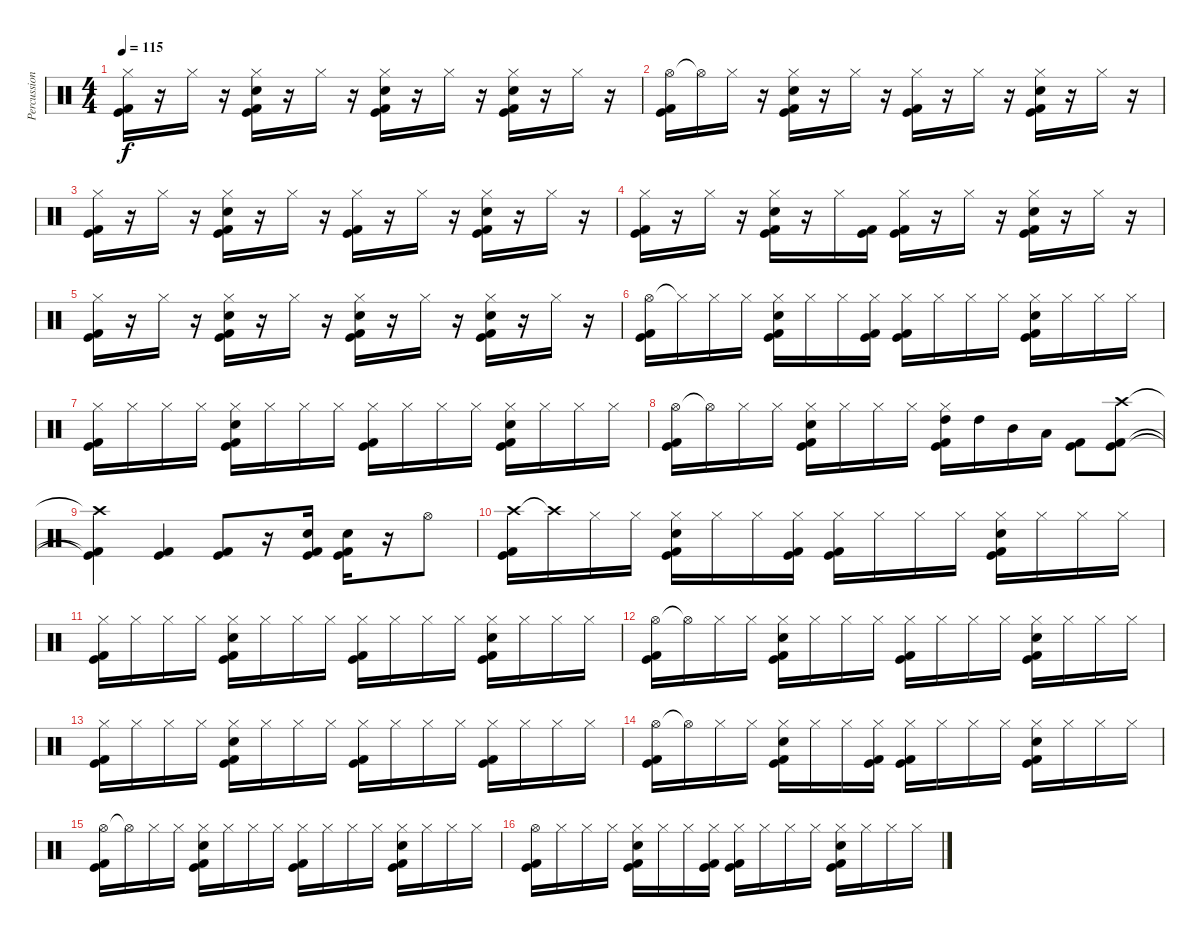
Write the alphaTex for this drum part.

\track ("Percussions" "Percussion") {instrument percussion}
\staff {score}
\articulation defaults
\ts (4 4)
\tempo 115
\clef neutral
\ks c
("Hi-Hat (closed)" "Kick (hit) 2" "Kick (hit)").16{dy f} r.16 "Hi-Hat (closed)".16 r.16 ("Hi-Hat (closed)" "Kick (hit) 2" "Snare (hit) 2" "Kick (hit)").16 r.16 "Hi-Hat (closed)".16 r.16 ("Hi-Hat (closed)" "Snare (hit) 2" "Kick (hit) 2" "Kick (hit)").16 r.16 "Hi-Hat (closed)".16 r.16 ("Hi-Hat (closed)" "Kick (hit) 2" "Snare (hit) 2" "Kick (hit)").16 r.16 "Hi-Hat (closed)".16 r.16 |
("Hi-Hat (open)" "Kick (hit) 2" "Kick (hit)").16 "Hi-Hat (open)"{t}.16 "Hi-Hat (closed)".16 r.16 ("Hi-Hat (closed)" "Kick (hit) 2" "Snare (hit) 2" "Kick (hit)").16 r.16 "Hi-Hat (closed)".16 r.16 ("Hi-Hat (closed)" "Kick (hit) 2" "Kick (hit)").16 r.16 "Hi-Hat (closed)".16 r.16 ("Hi-Hat (closed)" "Kick (hit) 2" "Snare (hit) 2" "Kick (hit)").16 r.16 "Hi-Hat (closed)".16 r.16 |
("Hi-Hat (closed)" "Kick (hit) 2" "Kick (hit)").16 r.16 "Hi-Hat (closed)".16 r.16 ("Hi-Hat (closed)" "Kick (hit) 2" "Snare (hit) 2" "Kick (hit)").16 r.16 "Hi-Hat (closed)".16 r.16 ("Hi-Hat (closed)" "Kick (hit) 2" "Kick (hit)").16 r.16 "Hi-Hat (closed)".16 r.16 ("Hi-Hat (closed)" "Kick (hit) 2" "Snare (hit) 2" "Kick (hit)").16 r.16 "Hi-Hat (closed)".16 r.16 |
("Hi-Hat (closed)" "Kick (hit) 2" "Kick (hit)").16 r.16 "Hi-Hat (closed)".16 r.16 ("Hi-Hat (closed)" "Kick (hit) 2" "Snare (hit) 2" "Kick (hit)").16 r.16 "Hi-Hat (closed)".16 ("Kick (hit) 2" "Kick (hit)").16 ("Hi-Hat (closed)" "Kick (hit) 2" "Kick (hit)").16 r.16 "Hi-Hat (closed)".16 r.16 ("Hi-Hat (closed)" "Kick (hit) 2" "Snare (hit) 2" "Kick (hit)").16 r.16 "Hi-Hat (closed)".16 r.16 |
("Hi-Hat (closed)" "Kick (hit) 2" "Kick (hit)").16 r.16 "Hi-Hat (closed)".16 r.16 ("Hi-Hat (closed)" "Kick (hit) 2" "Snare (hit) 2" "Kick (hit)").16 r.16 "Hi-Hat (closed)".16 r.16 ("Hi-Hat (closed)" "Snare (hit) 2" "Kick (hit) 2" "Kick (hit)").16 r.16 "Hi-Hat (closed)".16 r.16 ("Hi-Hat (closed)" "Kick (hit) 2" "Snare (hit) 2" "Kick (hit)").16 r.16 "Hi-Hat (closed)".16 r.16 |
("Hi-Hat (open)" "Kick (hit) 2" "Kick (hit)").16 "Hi-Hat (closed)"{t}.16 "Hi-Hat (closed)".16 "Hi-Hat (closed)".16 ("Hi-Hat (closed)" "Kick (hit) 2" "Snare (hit) 2" "Kick (hit)").16 "Hi-Hat (closed)".16 "Hi-Hat (closed)".16 ("Hi-Hat (closed)" "Kick (hit) 2" "Kick (hit)").16 ("Hi-Hat (closed)" "Kick (hit) 2" "Kick (hit)").16 "Hi-Hat (closed)".16 "Hi-Hat (closed)".16 "Hi-Hat (closed)".16 ("Hi-Hat (closed)" "Kick (hit) 2" "Snare (hit) 2" "Kick (hit)").16 "Hi-Hat (closed)".16 "Hi-Hat (closed)".16 "Hi-Hat (closed)".16 |
("Hi-Hat (closed)" "Kick (hit) 2" "Kick (hit)").16 "Hi-Hat (closed)".16 "Hi-Hat (closed)".16 "Hi-Hat (closed)".16 ("Hi-Hat (closed)" "Kick (hit) 2" "Snare (hit) 2" "Kick (hit)").16 "Hi-Hat (closed)".16 "Hi-Hat (closed)".16 "Hi-Hat (closed)".16 ("Hi-Hat (closed)" "Kick (hit) 2" "Kick (hit)").16 "Hi-Hat (closed)".16 "Hi-Hat (closed)".16 "Hi-Hat (closed)".16 ("Hi-Hat (closed)" "Kick (hit) 2" "Snare (hit) 2" "Kick (hit)").16 "Hi-Hat (closed)".16 "Hi-Hat (closed)".16 "Hi-Hat (closed)".16 |
("Hi-Hat (open)" "Kick (hit) 2" "Kick (hit)").16 "Hi-Hat (open)"{t}.16 "Hi-Hat (closed)".16 "Hi-Hat (closed)".16 ("Hi-Hat (closed)" "Kick (hit) 2" "Snare (hit) 2" "Kick (hit)").16 "Hi-Hat (closed)".16 "Hi-Hat (closed)".16 "Hi-Hat (closed)".16 ("Hi-Hat (closed)" "High Tom (hit)" "Kick (hit) 2" "Kick (hit)").16 "High Tom (hit)".16 "Mid Tom (hit)".16 "Low Tom (hit)".16 ("Kick (hit) 2" "Kick (hit)").8 ("Crash high (hit)" "Kick (hit) 2" "Kick (hit)").8 |
("Crash high (hit)"{t} "Kick (hit)"{t} "Kick (hit) 2"{t}).4 ("Kick (hit) 2" "Kick (hit)").4 ("Kick (hit) 2" "Kick (hit)").8 r.16 ("Kick (hit) 2" "Snare (hit) 2" "Kick (hit)").16 ("Kick (hit) 2" "Snare (hit) 2" "Kick (hit)").16 r.16 "Hi-Hat (open)".8 |
("Crash high (hit)" "Kick (hit) 2" "Kick (hit)").16 "Crash high (hit)"{t}.16 "Hi-Hat (closed)".16 "Hi-Hat (closed)".16 ("Hi-Hat (closed)" "Kick (hit) 2" "Snare (hit) 2" "Kick (hit)").16 "Hi-Hat (closed)".16 "Hi-Hat (closed)".16 ("Hi-Hat (closed)" "Kick (hit) 2" "Kick (hit)").16 ("Hi-Hat (closed)" "Kick (hit) 2" "Kick (hit)").16 "Hi-Hat (closed)".16 "Hi-Hat (closed)".16 "Hi-Hat (closed)".16 ("Hi-Hat (closed)" "Kick (hit) 2" "Snare (hit) 2" "Kick (hit)").16 "Hi-Hat (closed)".16 "Hi-Hat (closed)".16 "Hi-Hat (closed)".16 |
("Hi-Hat (closed)" "Kick (hit) 2" "Kick (hit)").16 "Hi-Hat (closed)".16 "Hi-Hat (closed)".16 "Hi-Hat (closed)".16 ("Hi-Hat (closed)" "Kick (hit) 2" "Snare (hit) 2" "Kick (hit)").16 "Hi-Hat (closed)".16 "Hi-Hat (closed)".16 "Hi-Hat (closed)".16 ("Hi-Hat (closed)" "Kick (hit) 2" "Kick (hit)").16 "Hi-Hat (closed)".16 "Hi-Hat (closed)".16 "Hi-Hat (closed)".16 ("Hi-Hat (closed)" "Kick (hit) 2" "Snare (hit) 2" "Kick (hit)").16 "Hi-Hat (closed)".16 "Hi-Hat (closed)".16 "Hi-Hat (closed)".16 |
("Hi-Hat (open)" "Kick (hit) 2" "Kick (hit)").16 "Hi-Hat (open)"{t}.16 "Hi-Hat (closed)".16 "Hi-Hat (closed)".16 ("Hi-Hat (closed)" "Kick (hit) 2" "Snare (hit) 2" "Kick (hit)").16 "Hi-Hat (closed)".16 "Hi-Hat (closed)".16 "Hi-Hat (closed)".16 ("Hi-Hat (closed)" "Kick (hit) 2" "Kick (hit)").16 "Hi-Hat (closed)".16 "Hi-Hat (closed)".16 "Hi-Hat (closed)".16 ("Hi-Hat (closed)" "Kick (hit) 2" "Snare (hit) 2" "Kick (hit)").16 "Hi-Hat (closed)".16 "Hi-Hat (closed)".16 "Hi-Hat (closed)".16 |
("Hi-Hat (closed)" "Kick (hit) 2" "Kick (hit)").16 "Hi-Hat (closed)".16 "Hi-Hat (closed)".16 "Hi-Hat (closed)".16 ("Hi-Hat (closed)" "Kick (hit) 2" "Snare (hit) 2" "Kick (hit)").16 "Hi-Hat (closed)".16 "Hi-Hat (closed)".16 "Hi-Hat (closed)".16 ("Hi-Hat (closed)" "Kick (hit) 2" "Kick (hit)").16 "Hi-Hat (closed)".16 "Hi-Hat (closed)".16 "Hi-Hat (closed)".16 ("Hi-Hat (closed)" "Kick (hit) 2" "Kick (hit)").16 "Hi-Hat (closed)".16 "Hi-Hat (closed)".16 "Hi-Hat (closed)".16 |
("Hi-Hat (open)" "Kick (hit) 2" "Kick (hit)").16 "Hi-Hat (open)"{t}.16 "Hi-Hat (closed)".16 "Hi-Hat (closed)".16 ("Hi-Hat (closed)" "Kick (hit) 2" "Snare (hit) 2" "Kick (hit)").16 "Hi-Hat (closed)".16 "Hi-Hat (closed)".16 ("Hi-Hat (closed)" "Kick (hit) 2" "Kick (hit)").16 ("Hi-Hat (closed)" "Kick (hit) 2" "Kick (hit)").16 "Hi-Hat (closed)".16 "Hi-Hat (closed)".16 "Hi-Hat (closed)".16 ("Hi-Hat (closed)" "Kick (hit) 2" "Snare (hit) 2" "Kick (hit)").16 "Hi-Hat (closed)".16 "Hi-Hat (closed)".16 "Hi-Hat (closed)".16 |
("Hi-Hat (open)" "Kick (hit) 2" "Kick (hit)").16 "Hi-Hat (open)"{t}.16 "Hi-Hat (closed)".16 "Hi-Hat (closed)".16 ("Hi-Hat (closed)" "Kick (hit) 2" "Snare (hit) 2" "Kick (hit)").16 "Hi-Hat (closed)".16 "Hi-Hat (closed)".16 "Hi-Hat (closed)".16 ("Hi-Hat (closed)" "Kick (hit) 2" "Kick (hit)").16 "Hi-Hat (closed)".16 "Hi-Hat (closed)".16 "Hi-Hat (closed)".16 ("Hi-Hat (closed)" "Snare (hit) 2" "Kick (hit) 2" "Kick (hit)").16 "Hi-Hat (closed)".16 "Hi-Hat (closed)".16 "Hi-Hat (closed)".16 |
("Hi-Hat (open)" "Kick (hit) 2" "Kick (hit)").16 "Hi-Hat (closed)".16 "Hi-Hat (closed)".16 "Hi-Hat (closed)".16 ("Hi-Hat (closed)" "Kick (hit) 2" "Snare (hit) 2" "Kick (hit)").16 "Hi-Hat (closed)".16 "Hi-Hat (closed)".16 ("Hi-Hat (closed)" "Kick (hit) 2" "Kick (hit)").16 ("Hi-Hat (closed)" "Kick (hit) 2" "Kick (hit)").16 "Hi-Hat (closed)".16 "Hi-Hat (closed)".16 "Hi-Hat (closed)".16 ("Hi-Hat (closed)" "Kick (hit) 2" "Snare (hit) 2" "Kick (hit)").16 "Hi-Hat (closed)".16 "Hi-Hat (closed)".16 "Hi-Hat (closed)".16
